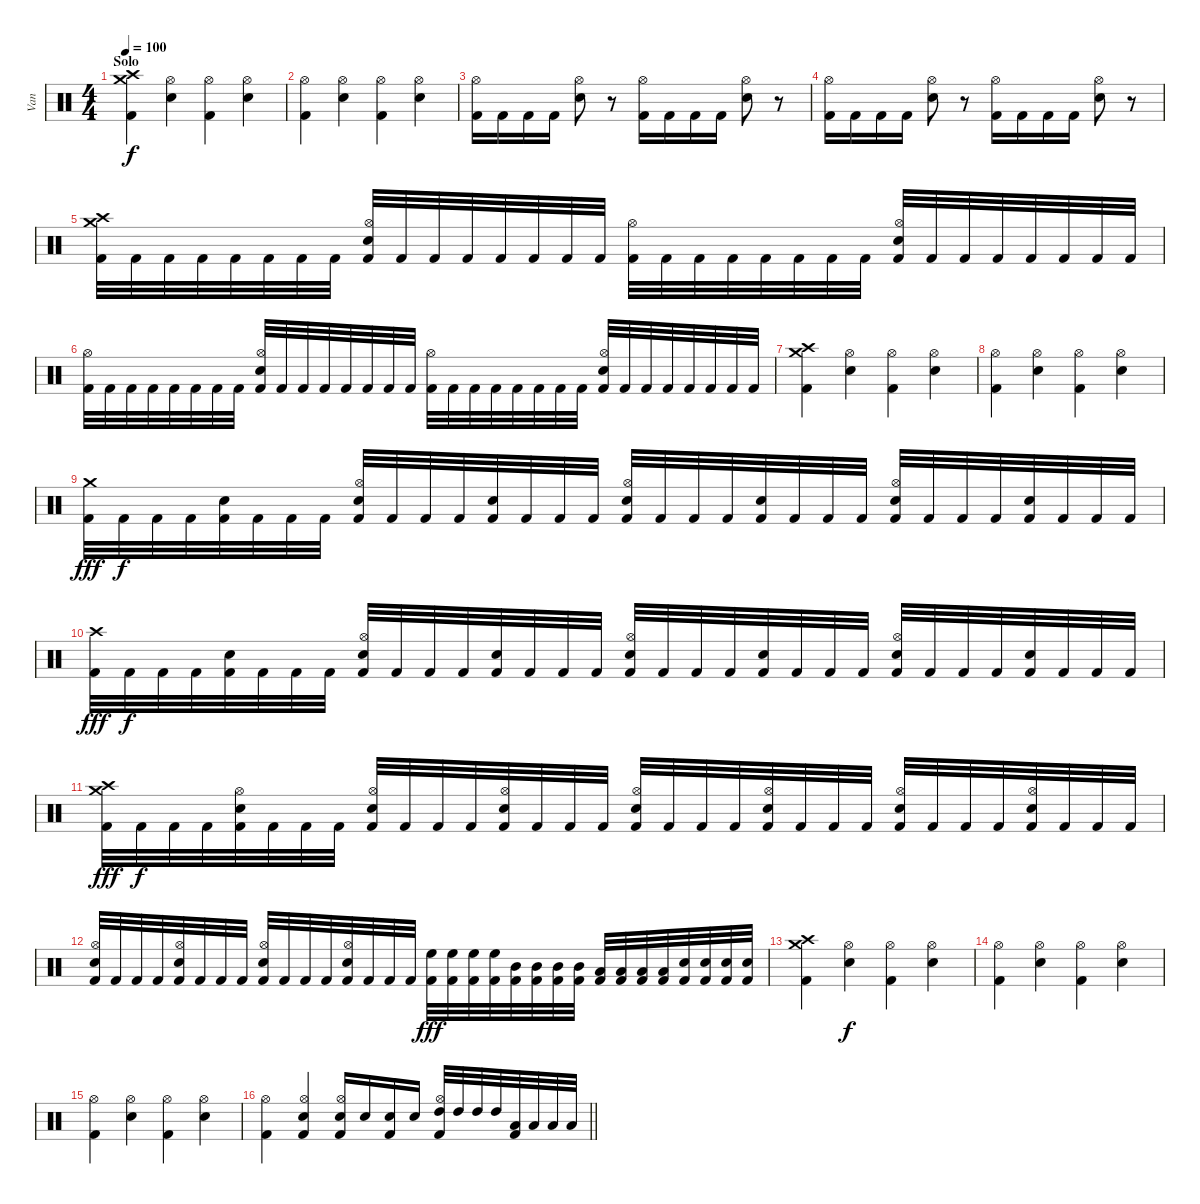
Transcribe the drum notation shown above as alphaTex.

\track ("Van" "Van") {instrument percussion}
\staff {score}
\articulation defaults
\ts (4 4)
\section ("" "Solo")
\tempo 100
\clef neutral
\ks c
("Crash medium (hit)" "Crash high (hit)" "Kick (hit) 2").4{dy f} ("Hi-Hat (open)" "Electric Snare (hit)").4 ("Hi-Hat (open)" "Kick (hit) 2").4 ("Hi-Hat (open)" "Electric Snare (hit)").4 |
("Hi-Hat (open)" "Kick (hit) 2").4 ("Hi-Hat (open)" "Electric Snare (hit)").4 ("Hi-Hat (open)" "Kick (hit) 2").4 ("Hi-Hat (open)" "Electric Snare (hit)").4 |
("Hi-Hat (open)" "Kick (hit) 2").16 "Kick (hit) 2".16 "Kick (hit) 2".16 "Kick (hit) 2".16 ("Hi-Hat (open)" "Electric Snare (hit)").8 r.8 ("Hi-Hat (open)" "Kick (hit) 2").16 "Kick (hit) 2".16 "Kick (hit) 2".16 "Kick (hit) 2".16 ("Hi-Hat (open)" "Electric Snare (hit)").8 r.8 |
("Hi-Hat (open)" "Kick (hit) 2").16 "Kick (hit) 2".16 "Kick (hit) 2".16 "Kick (hit) 2".16 ("Hi-Hat (open)" "Electric Snare (hit)").8 r.8 ("Hi-Hat (open)" "Kick (hit) 2").16 "Kick (hit) 2".16 "Kick (hit) 2".16 "Kick (hit) 2".16 ("Hi-Hat (open)" "Electric Snare (hit)").8 r.8 |
("Crash high (hit)" "Crash medium (hit)" "Kick (hit) 2").32 "Kick (hit) 2".32 "Kick (hit) 2".32 "Kick (hit) 2".32 "Kick (hit) 2".32 "Kick (hit) 2".32 "Kick (hit) 2".32 "Kick (hit) 2".32 ("Hi-Hat (open)" "Electric Snare (hit)" "Kick (hit) 2").32 "Kick (hit) 2".32 "Kick (hit) 2".32 "Kick (hit) 2".32 "Kick (hit) 2".32 "Kick (hit) 2".32 "Kick (hit) 2".32 "Kick (hit) 2".32 ("Hi-Hat (open)" "Kick (hit) 2").32 "Kick (hit) 2".32 "Kick (hit) 2".32 "Kick (hit) 2".32 "Kick (hit) 2".32 "Kick (hit) 2".32 "Kick (hit) 2".32 "Kick (hit) 2".32 ("Hi-Hat (open)" "Electric Snare (hit)" "Kick (hit) 2").32 "Kick (hit) 2".32 "Kick (hit) 2".32 "Kick (hit) 2".32 "Kick (hit) 2".32 "Kick (hit) 2".32 "Kick (hit) 2".32 "Kick (hit) 2".32 |
("Hi-Hat (open)" "Kick (hit) 2").32 "Kick (hit) 2".32 "Kick (hit) 2".32 "Kick (hit) 2".32 "Kick (hit) 2".32 "Kick (hit) 2".32 "Kick (hit) 2".32 "Kick (hit) 2".32 ("Hi-Hat (open)" "Electric Snare (hit)" "Kick (hit) 2").32 "Kick (hit) 2".32 "Kick (hit) 2".32 "Kick (hit) 2".32 "Kick (hit) 2".32 "Kick (hit) 2".32 "Kick (hit) 2".32 "Kick (hit) 2".32 ("Hi-Hat (open)" "Kick (hit) 2").32 "Kick (hit) 2".32 "Kick (hit) 2".32 "Kick (hit) 2".32 "Kick (hit) 2".32 "Kick (hit) 2".32 "Kick (hit) 2".32 "Kick (hit) 2".32 ("Hi-Hat (open)" "Electric Snare (hit)" "Kick (hit) 2").32 "Kick (hit) 2".32 "Kick (hit) 2".32 "Kick (hit) 2".32 "Kick (hit) 2".32 "Kick (hit) 2".32 "Kick (hit) 2".32 "Kick (hit) 2".32 |
("Crash medium (hit)" "Crash high (hit)" "Kick (hit) 2").4 ("Hi-Hat (open)" "Electric Snare (hit)").4 ("Hi-Hat (open)" "Kick (hit) 2").4 ("Hi-Hat (open)" "Electric Snare (hit)").4 |
("Hi-Hat (open)" "Kick (hit) 2").4 ("Hi-Hat (open)" "Electric Snare (hit)").4 ("Hi-Hat (open)" "Kick (hit) 2").4 ("Hi-Hat (open)" "Electric Snare (hit)").4 |
("Crash medium (hit)" "Kick (hit) 2").32{dy fff} "Kick (hit) 2".32{dy f} "Kick (hit) 2".32 "Kick (hit) 2".32 ("Electric Snare (hit)" "Kick (hit) 2").32 "Kick (hit) 2".32 "Kick (hit) 2".32 "Kick (hit) 2".32 ("Hi-Hat (open)" "Electric Snare (hit)" "Kick (hit) 2").32 "Kick (hit) 2".32 "Kick (hit) 2".32 "Kick (hit) 2".32 ("Electric Snare (hit)" "Kick (hit) 2").32 "Kick (hit) 2".32 "Kick (hit) 2".32 "Kick (hit) 2".32 ("Hi-Hat (open)" "Electric Snare (hit)" "Kick (hit) 2").32 "Kick (hit) 2".32 "Kick (hit) 2".32 "Kick (hit) 2".32 ("Electric Snare (hit)" "Kick (hit) 2").32 "Kick (hit) 2".32 "Kick (hit) 2".32 "Kick (hit) 2".32 ("Hi-Hat (open)" "Electric Snare (hit)" "Kick (hit) 2").32 "Kick (hit) 2".32 "Kick (hit) 2".32 "Kick (hit) 2".32 ("Electric Snare (hit)" "Kick (hit) 2").32 "Kick (hit) 2".32 "Kick (hit) 2".32 "Kick (hit) 2".32 |
("Crash high (hit)" "Kick (hit) 2").32{dy fff} "Kick (hit) 2".32{dy f} "Kick (hit) 2".32 "Kick (hit) 2".32 ("Electric Snare (hit)" "Kick (hit) 2").32 "Kick (hit) 2".32 "Kick (hit) 2".32 "Kick (hit) 2".32 ("Hi-Hat (open)" "Electric Snare (hit)" "Kick (hit) 2").32 "Kick (hit) 2".32 "Kick (hit) 2".32 "Kick (hit) 2".32 ("Electric Snare (hit)" "Kick (hit) 2").32 "Kick (hit) 2".32 "Kick (hit) 2".32 "Kick (hit) 2".32 ("Hi-Hat (open)" "Electric Snare (hit)" "Kick (hit) 2").32 "Kick (hit) 2".32 "Kick (hit) 2".32 "Kick (hit) 2".32 ("Electric Snare (hit)" "Kick (hit) 2").32 "Kick (hit) 2".32 "Kick (hit) 2".32 "Kick (hit) 2".32 ("Hi-Hat (open)" "Electric Snare (hit)" "Kick (hit) 2").32 "Kick (hit) 2".32 "Kick (hit) 2".32 "Kick (hit) 2".32 ("Electric Snare (hit)" "Kick (hit) 2").32 "Kick (hit) 2".32 "Kick (hit) 2".32 "Kick (hit) 2".32 |
("Crash high (hit)" "Crash medium (hit)" "Kick (hit) 2").32{dy fff} "Kick (hit) 2".32{dy f} "Kick (hit) 2".32 "Kick (hit) 2".32 ("Hi-Hat (open)" "Electric Snare (hit)" "Kick (hit) 2").32 "Kick (hit) 2".32 "Kick (hit) 2".32 "Kick (hit) 2".32 ("Hi-Hat (open)" "Electric Snare (hit)" "Kick (hit) 2").32 "Kick (hit) 2".32 "Kick (hit) 2".32 "Kick (hit) 2".32 ("Hi-Hat (open)" "Electric Snare (hit)" "Kick (hit) 2").32 "Kick (hit) 2".32 "Kick (hit) 2".32 "Kick (hit) 2".32 ("Hi-Hat (open)" "Electric Snare (hit)" "Kick (hit) 2").32 "Kick (hit) 2".32 "Kick (hit) 2".32 "Kick (hit) 2".32 ("Hi-Hat (open)" "Electric Snare (hit)" "Kick (hit) 2").32 "Kick (hit) 2".32 "Kick (hit) 2".32 "Kick (hit) 2".32 ("Hi-Hat (open)" "Electric Snare (hit)" "Kick (hit) 2").32 "Kick (hit) 2".32 "Kick (hit) 2".32 "Kick (hit) 2".32 ("Hi-Hat (open)" "Electric Snare (hit)" "Kick (hit) 2").32 "Kick (hit) 2".32 "Kick (hit) 2".32 "Kick (hit) 2".32 |
("Hi-Hat (open)" "Electric Snare (hit)" "Kick (hit) 2").32 "Kick (hit) 2".32 "Kick (hit) 2".32 "Kick (hit) 2".32 ("Hi-Hat (open)" "Electric Snare (hit)" "Kick (hit) 2").32 "Kick (hit) 2".32 "Kick (hit) 2".32 "Kick (hit) 2".32 ("Hi-Hat (open)" "Electric Snare (hit)" "Kick (hit) 2").32 "Kick (hit) 2".32 "Kick (hit) 2".32 "Kick (hit) 2".32 ("Hi-Hat (open)" "Electric Snare (hit)" "Kick (hit) 2").32 "Kick (hit) 2".32 "Kick (hit) 2".32 "Kick (hit) 2".32 ("High Floor Tom (hit)" "Kick (hit) 2").32{dy fff} ("High Floor Tom (hit)" "Kick (hit) 2").32 ("High Floor Tom (hit)" "Kick (hit) 2").32 ("High Floor Tom (hit)" "Kick (hit) 2").32 ("Mid Tom (hit)" "Kick (hit) 2").32 ("Mid Tom (hit)" "Kick (hit) 2").32 ("Mid Tom (hit)" "Kick (hit) 2").32 ("Mid Tom (hit)" "Kick (hit) 2").32 ("Low Tom (hit)" "Kick (hit) 2").32 ("Low Tom (hit)" "Kick (hit) 2").32 ("Low Tom (hit)" "Kick (hit) 2").32 ("Low Tom (hit)" "Kick (hit) 2").32 ("Electric Snare (hit)" "Kick (hit) 2").32 ("Electric Snare (hit)" "Kick (hit) 2").32 ("Electric Snare (hit)" "Kick (hit) 2").32 ("Electric Snare (hit)" "Kick (hit) 2").32 |
("Crash medium (hit)" "Crash high (hit)" "Kick (hit) 2").4 ("Hi-Hat (open)" "Electric Snare (hit)").4{dy f} ("Hi-Hat (open)" "Kick (hit) 2").4 ("Hi-Hat (open)" "Electric Snare (hit)").4 |
("Hi-Hat (open)" "Kick (hit) 2").4 ("Hi-Hat (open)" "Electric Snare (hit)").4 ("Hi-Hat (open)" "Kick (hit) 2").4 ("Hi-Hat (open)" "Electric Snare (hit)").4 |
("Hi-Hat (open)" "Kick (hit) 2").4 ("Hi-Hat (open)" "Electric Snare (hit)").4 ("Hi-Hat (open)" "Kick (hit) 2").4 ("Hi-Hat (open)" "Electric Snare (hit)").4 |
\barLineRight lightlight
("Hi-Hat (open)" "Kick (hit) 2").4 ("Hi-Hat (open)" "Electric Snare (hit)" "Kick (hit) 2").4 ("Hi-Hat (open)" "Electric Snare (hit)" "Kick (hit) 2").16 "Electric Snare (hit)".16 ("Electric Snare (hit)" "Kick (hit) 2").16 "Electric Snare (hit)".16 ("Hi-Hat (open)" "High Tom (hit)" "Kick (hit) 2").32 "High Tom (hit)".32 "High Tom (hit)".32 "High Tom (hit)".32 ("Low Tom (hit)" "Kick (hit) 2").32 "Low Tom (hit)".32 "Low Tom (hit)".32 "Low Tom (hit)".32
